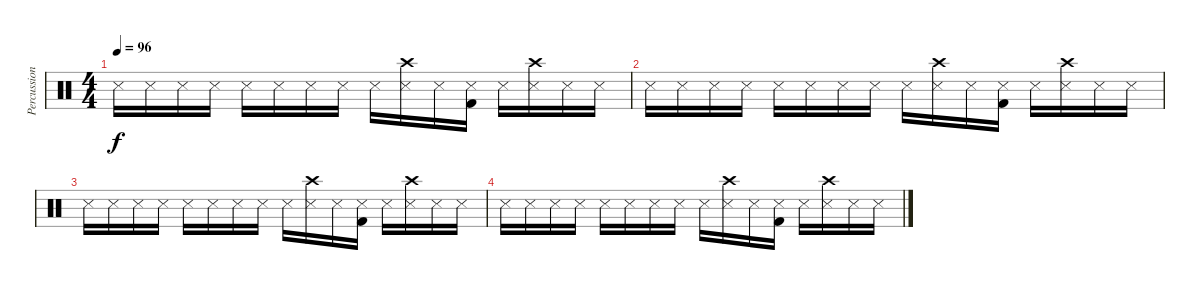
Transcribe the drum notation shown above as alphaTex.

\track ("Percussion 3 diff" "Percussion") {instrument percussion}
\staff {score}
\articulation defaults
\ts (4 4)
\tempo 96
\clef neutral
\ks c "Snare (side stick) 3".16{dy f} "Snare (side stick) 3".16 "Snare (side stick) 3".16 "Snare (side stick) 3".16 "Snare (side stick) 3".16 "Snare (side stick) 3".16 "Snare (side stick) 3".16 "Snare (side stick) 3".16 "Snare (side stick) 3".16
("Snare (side stick) 3" "Crash high (hit)").16 "Snare (side stick) 3".16 ("Snare (side stick) 3" "Kick (hit) 2").16 "Snare (side stick) 3".16 ("Snare (side stick) 3" "Crash high (hit)").16 "Snare (side stick) 3".16 "Snare (side stick) 3".16 |
"Snare (side stick) 3".16 "Snare (side stick) 3".16 "Snare (side stick) 3".16 "Snare (side stick) 3".16 "Snare (side stick) 3".16 "Snare (side stick) 3".16 "Snare (side stick) 3".16 "Snare (side stick) 3".16 "Snare (side stick) 3".16 ("Snare (side stick) 3" "Crash high (hit)").16 "Snare (side stick) 3".16 ("Snare (side stick) 3" "Kick (hit) 2").16 "Snare (side stick) 3".16 ("Snare (side stick) 3" "Crash high (hit)").16 "Snare (side stick) 3".16 "Snare (side stick) 3".16 |
"Snare (side stick) 3".16 "Snare (side stick) 3".16 "Snare (side stick) 3".16 "Snare (side stick) 3".16 "Snare (side stick) 3".16 "Snare (side stick) 3".16 "Snare (side stick) 3".16 "Snare (side stick) 3".16 "Snare (side stick) 3".16 ("Snare (side stick) 3" "Crash high (hit)").16 "Snare (side stick) 3".16 ("Snare (side stick) 3" "Kick (hit) 2").16 "Snare (side stick) 3".16 ("Snare (side stick) 3" "Crash high (hit)").16 "Snare (side stick) 3".16 "Snare (side stick) 3".16 |
"Snare (side stick) 3".16 "Snare (side stick) 3".16 "Snare (side stick) 3".16 "Snare (side stick) 3".16 "Snare (side stick) 3".16 "Snare (side stick) 3".16 "Snare (side stick) 3".16 "Snare (side stick) 3".16 "Snare (side stick) 3".16 ("Snare (side stick) 3" "Crash high (hit)").16 "Snare (side stick) 3".16 ("Snare (side stick) 3" "Kick (hit) 2").16 "Snare (side stick) 3".16 ("Snare (side stick) 3" "Crash high (hit)").16 "Snare (side stick) 3".16 "Snare (side stick) 3".16
